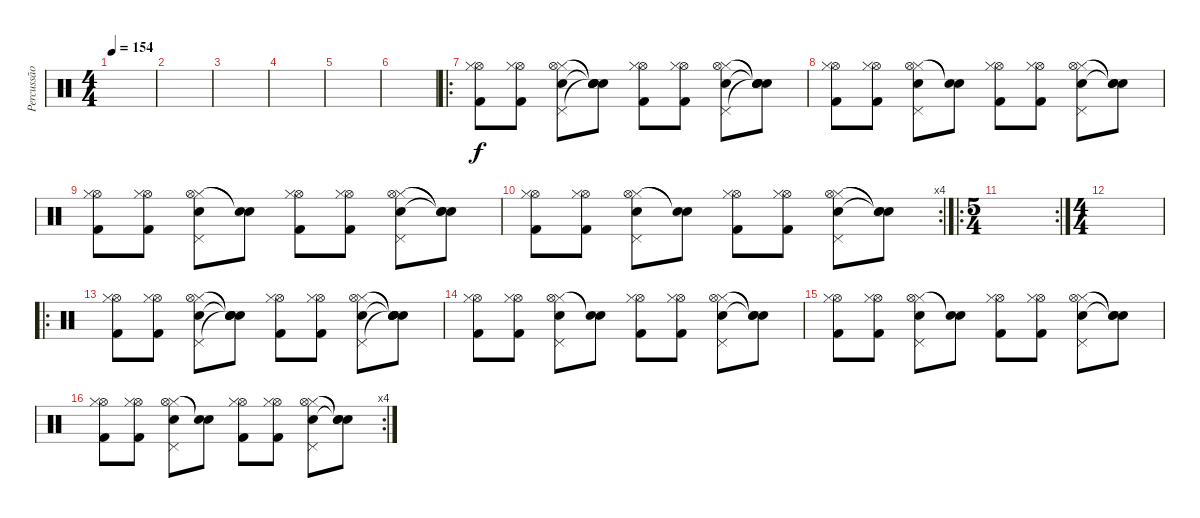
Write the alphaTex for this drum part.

\track ("Percussão" "Percussão") {instrument percussion}
\staff {score}
\articulation defaults
\ts (4 4)
\tempo 154
\clef neutral
\ks c
|
|
|
|
|
|
\ro
("Hi-Hat (open)" "Kick (hit) 2" "Hi-Hat (closed)").8 ("Hi-Hat (open)" "Kick (hit) 2" "Hi-Hat (closed)").8 ("Hi-Hat (closed)" "Hi-Hat (open)" "Snare (hit) 2" "Pedal Hi-Hat (hit)").8 ("Snare (hit)"{t} "Snare (hit)"{t} "Snare (hit)"{t} "Snare (hit)"{t}).8 ("Hi-Hat (open)" "Kick (hit) 2" "Hi-Hat (closed)").8 ("Hi-Hat (open)" "Kick (hit) 2" "Hi-Hat (closed)").8 ("Hi-Hat (closed)" "Hi-Hat (open)" "Snare (hit) 2" "Pedal Hi-Hat (hit)").8 ("Snare (hit)"{t} "Snare (hit)"{t} "Snare (hit)"{t} "Snare (hit)"{t}).8 |
("Hi-Hat (open)" "Kick (hit) 2" "Hi-Hat (closed)").8 ("Hi-Hat (open)" "Kick (hit) 2" "Hi-Hat (closed)").8 ("Hi-Hat (closed)" "Hi-Hat (open)" "Snare (hit) 2" "Pedal Hi-Hat (hit)").8 ("Snare (hit)"{t} "Snare (hit)"{t}).8 ("Hi-Hat (open)" "Kick (hit) 2" "Hi-Hat (closed)").8 ("Hi-Hat (open)" "Kick (hit) 2" "Hi-Hat (closed)").8 ("Hi-Hat (closed)" "Hi-Hat (open)" "Snare (hit) 2" "Pedal Hi-Hat (hit)").8 ("Snare (hit)"{t} "Snare (hit)"{t} "Snare (hit)"{t}).8 |
("Hi-Hat (open)" "Kick (hit) 2" "Hi-Hat (closed)").8 ("Hi-Hat (open)" "Kick (hit) 2" "Hi-Hat (closed)").8 ("Hi-Hat (closed)" "Hi-Hat (open)" "Snare (hit) 2" "Pedal Hi-Hat (hit)").8 ("Snare (hit)"{t} "Snare (hit)"{t}).8 ("Hi-Hat (open)" "Kick (hit) 2" "Hi-Hat (closed)").8 ("Hi-Hat (open)" "Kick (hit) 2" "Hi-Hat (closed)").8 ("Hi-Hat (closed)" "Hi-Hat (open)" "Snare (hit) 2" "Pedal Hi-Hat (hit)").8 ("Snare (hit)"{t} "Snare (hit)"{t} "Snare (hit)"{t}).8 |
\rc 4
("Hi-Hat (open)" "Kick (hit) 2" "Hi-Hat (closed)").8 ("Hi-Hat (open)" "Kick (hit) 2" "Hi-Hat (closed)").8 ("Hi-Hat (closed)" "Hi-Hat (open)" "Snare (hit) 2" "Pedal Hi-Hat (hit)").8 ("Snare (hit)"{t} "Snare (hit)"{t}).8 ("Hi-Hat (open)" "Kick (hit) 2" "Hi-Hat (closed)").8 ("Hi-Hat (open)" "Kick (hit) 2" "Hi-Hat (closed)").8 ("Hi-Hat (closed)" "Hi-Hat (open)" "Snare (hit) 2" "Pedal Hi-Hat (hit)").8 ("Snare (hit)"{t} "Snare (hit)"{t} "Snare (hit)"{t}).8 |
\ro
\rc 2
\ts (5 4)
|
\ts (4 4)
|
\ro
("Hi-Hat (open)" "Kick (hit) 2" "Hi-Hat (closed)").8 ("Hi-Hat (open)" "Kick (hit) 2" "Hi-Hat (closed)").8 ("Hi-Hat (closed)" "Hi-Hat (open)" "Snare (hit) 2" "Pedal Hi-Hat (hit)").8 ("Snare (hit)"{t} "Snare (hit)"{t} "Snare (hit)"{t} "Snare (hit)"{t}).8 ("Hi-Hat (open)" "Kick (hit) 2" "Hi-Hat (closed)").8 ("Hi-Hat (open)" "Kick (hit) 2" "Hi-Hat (closed)").8 ("Hi-Hat (closed)" "Hi-Hat (open)" "Snare (hit) 2" "Pedal Hi-Hat (hit)").8 ("Snare (hit)"{t} "Snare (hit)"{t} "Snare (hit)"{t} "Snare (hit)"{t}).8 |
("Hi-Hat (open)" "Kick (hit) 2" "Hi-Hat (closed)").8 ("Hi-Hat (open)" "Kick (hit) 2" "Hi-Hat (closed)").8 ("Hi-Hat (closed)" "Hi-Hat (open)" "Snare (hit) 2" "Pedal Hi-Hat (hit)").8 ("Snare (hit)"{t} "Snare (hit)"{t}).8 ("Hi-Hat (open)" "Kick (hit) 2" "Hi-Hat (closed)").8 ("Hi-Hat (open)" "Kick (hit) 2" "Hi-Hat (closed)").8 ("Hi-Hat (closed)" "Hi-Hat (open)" "Snare (hit) 2" "Pedal Hi-Hat (hit)").8 ("Snare (hit)"{t} "Snare (hit)"{t} "Snare (hit)"{t}).8 |
("Hi-Hat (open)" "Kick (hit) 2" "Hi-Hat (closed)").8 ("Hi-Hat (open)" "Kick (hit) 2" "Hi-Hat (closed)").8 ("Hi-Hat (closed)" "Hi-Hat (open)" "Snare (hit) 2" "Pedal Hi-Hat (hit)").8 ("Snare (hit)"{t} "Snare (hit)"{t}).8 ("Hi-Hat (open)" "Kick (hit) 2" "Hi-Hat (closed)").8 ("Hi-Hat (open)" "Kick (hit) 2" "Hi-Hat (closed)").8 ("Hi-Hat (closed)" "Hi-Hat (open)" "Snare (hit) 2" "Pedal Hi-Hat (hit)").8 ("Snare (hit)"{t} "Snare (hit)"{t} "Snare (hit)"{t}).8 |
\rc 4
("Hi-Hat (open)" "Kick (hit) 2" "Hi-Hat (closed)").8 ("Hi-Hat (open)" "Kick (hit) 2" "Hi-Hat (closed)").8 ("Hi-Hat (closed)" "Hi-Hat (open)" "Snare (hit) 2" "Pedal Hi-Hat (hit)").8 ("Snare (hit)"{t} "Snare (hit)"{t}).8 ("Hi-Hat (open)" "Kick (hit) 2" "Hi-Hat (closed)").8 ("Hi-Hat (open)" "Kick (hit) 2" "Hi-Hat (closed)").8 ("Hi-Hat (closed)" "Hi-Hat (open)" "Snare (hit) 2" "Pedal Hi-Hat (hit)").8 ("Snare (hit)"{t} "Snare (hit)"{t} "Snare (hit)"{t}).8
